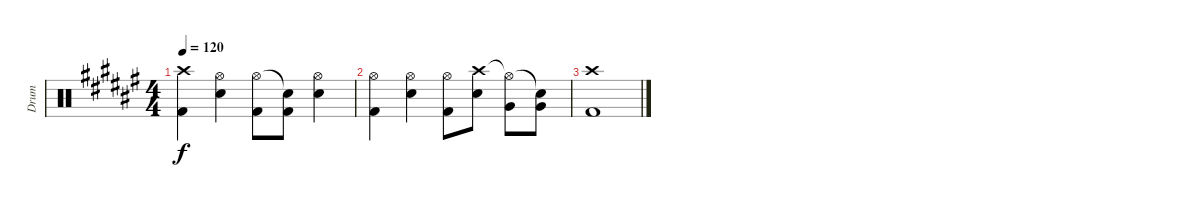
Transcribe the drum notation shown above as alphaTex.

\track ("Drum" "Drum") {instrument percussion}
\staff {score}
\articulation defaults
\ts (4 4)
\tempo 120
\clef neutral
\ks f#
("Crash high (hit)" "Kick (hit) 2").4{dy f} ("Hi-Hat (open)" "Electric Snare (hit)").4 ("Hi-Hat (open)" "Kick (hit) 2").8 ("Snare (hit)"{t} "Kick (hit) 2").8 ("Hi-Hat (open)" "Electric Snare (hit)").4 |
("Hi-Hat (open)" "Kick (hit) 2").4 ("Hi-Hat (open)" "Electric Snare (hit)").4 ("Hi-Hat (open)" "Kick (hit) 2").8 ("Crash high (hit)" "Electric Snare (hit)").8 ("Hi-Hat (open)"{t} "Very Low Tom (hit)").8 ("Snare (hit)"{t} "Very Low Tom (hit)").8 |
("Crash high (hit)" "Kick (hit) 2").1
